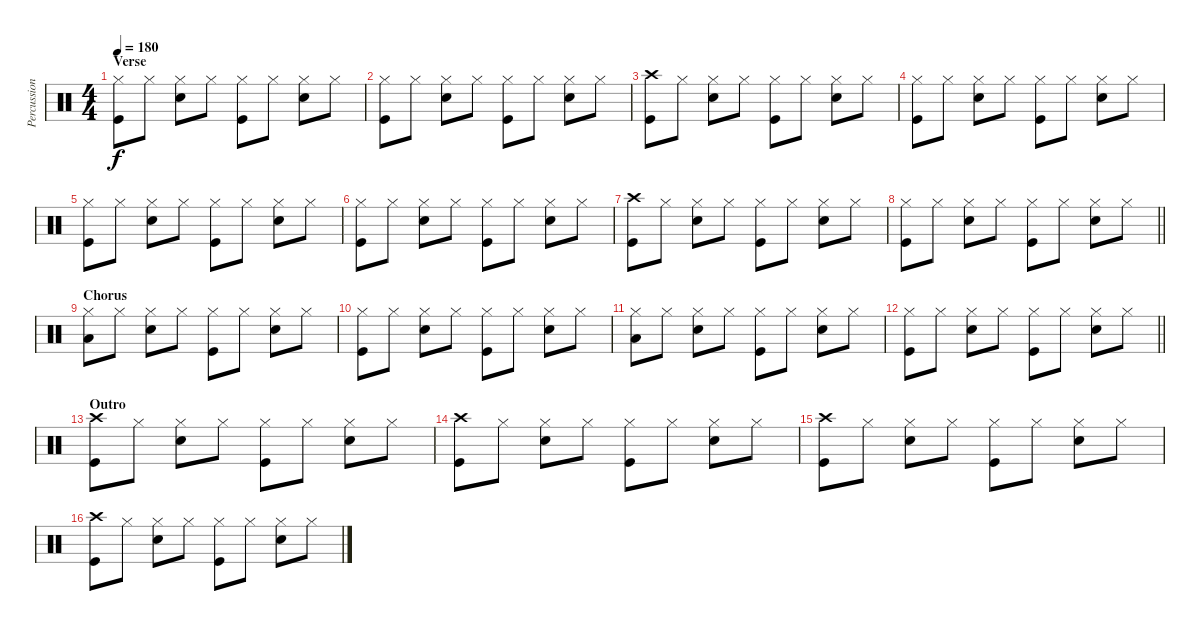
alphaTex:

\track ("Percussion" "Percussion") {mute instrument percussion}
\staff {score}
\articulation defaults
\ts (4 4)
\section ("" "Verse")
\tempo 180
\clef neutral
\ks c
("Hi-Hat (closed)" "Kick (hit)").8{dy f} "Hi-Hat (closed)".8 ("Hi-Hat (closed)" "Snare (hit) 2").8 "Hi-Hat (closed)".8 ("Hi-Hat (closed)" "Kick (hit)").8 "Hi-Hat (closed)".8 ("Hi-Hat (closed)" "Snare (hit) 2").8 "Hi-Hat (closed)".8 |
("Hi-Hat (closed)" "Kick (hit)").8 "Hi-Hat (closed)".8 ("Hi-Hat (closed)" "Snare (hit) 2").8 "Hi-Hat (closed)".8 ("Hi-Hat (closed)" "Kick (hit)").8 "Hi-Hat (closed)".8 ("Hi-Hat (closed)" "Snare (hit) 2").8 "Hi-Hat (closed)".8 |
("Crash high (hit)" "Kick (hit)").8 "Hi-Hat (closed)".8 ("Hi-Hat (closed)" "Snare (hit) 2").8 "Hi-Hat (closed)".8 ("Hi-Hat (closed)" "Kick (hit)").8 "Hi-Hat (closed)".8 ("Hi-Hat (closed)" "Snare (hit) 2").8 "Hi-Hat (closed)".8 |
("Hi-Hat (closed)" "Kick (hit)").8 "Hi-Hat (closed)".8 ("Hi-Hat (closed)" "Snare (hit) 2").8 "Hi-Hat (closed)".8 ("Hi-Hat (closed)" "Kick (hit)").8 "Hi-Hat (closed)".8 ("Hi-Hat (closed)" "Snare (hit) 2").8 "Hi-Hat (closed)".8 |
("Hi-Hat (closed)" "Kick (hit)").8 "Hi-Hat (closed)".8 ("Hi-Hat (closed)" "Snare (hit) 2").8 "Hi-Hat (closed)".8 ("Hi-Hat (closed)" "Kick (hit)").8 "Hi-Hat (closed)".8 ("Hi-Hat (closed)" "Snare (hit) 2").8 "Hi-Hat (closed)".8 |
("Hi-Hat (closed)" "Kick (hit)").8 "Hi-Hat (closed)".8 ("Hi-Hat (closed)" "Snare (hit) 2").8 "Hi-Hat (closed)".8 ("Hi-Hat (closed)" "Kick (hit)").8 "Hi-Hat (closed)".8 ("Hi-Hat (closed)" "Snare (hit) 2").8 "Hi-Hat (closed)".8 |
("Crash high (hit)" "Kick (hit)").8 "Hi-Hat (closed)".8 ("Hi-Hat (closed)" "Snare (hit) 2").8 "Hi-Hat (closed)".8 ("Hi-Hat (closed)" "Kick (hit)").8 "Hi-Hat (closed)".8 ("Hi-Hat (closed)" "Snare (hit) 2").8 "Hi-Hat (closed)".8 |
\barLineRight lightlight
("Hi-Hat (closed)" "Kick (hit)").8 "Hi-Hat (closed)".8 ("Hi-Hat (closed)" "Snare (hit) 2").8 "Hi-Hat (closed)".8 ("Hi-Hat (closed)" "Kick (hit)").8 "Hi-Hat (closed)".8 ("Hi-Hat (closed)" "Snare (hit) 2").8 "Hi-Hat (closed)".8 |
\section ("" "Chorus")
("Hi-Hat (closed)" "Low Floor Tom (hit)").8 "Hi-Hat (closed)".8 ("Hi-Hat (closed)" "Snare (hit) 2").8 "Hi-Hat (closed)".8 ("Hi-Hat (closed)" "Kick (hit)").8 "Hi-Hat (closed)".8 ("Hi-Hat (closed)" "Snare (hit) 2").8 "Hi-Hat (closed)".8 |
("Hi-Hat (closed)" "Kick (hit)").8 "Hi-Hat (closed)".8 ("Hi-Hat (closed)" "Snare (hit) 2").8 "Hi-Hat (closed)".8 ("Hi-Hat (closed)" "Kick (hit)").8 "Hi-Hat (closed)".8 ("Hi-Hat (closed)" "Snare (hit) 2").8 "Hi-Hat (closed)".8 |
("Hi-Hat (closed)" "Low Floor Tom (hit)").8 "Hi-Hat (closed)".8 ("Hi-Hat (closed)" "Snare (hit) 2").8 "Hi-Hat (closed)".8 ("Hi-Hat (closed)" "Kick (hit)").8 "Hi-Hat (closed)".8 ("Hi-Hat (closed)" "Snare (hit) 2").8 "Hi-Hat (closed)".8 |
\barLineRight lightlight
("Hi-Hat (closed)" "Kick (hit)").8 "Hi-Hat (closed)".8 ("Hi-Hat (closed)" "Snare (hit) 2").8 "Hi-Hat (closed)".8 ("Hi-Hat (closed)" "Kick (hit)").8 "Hi-Hat (closed)".8 ("Hi-Hat (closed)" "Snare (hit) 2").8 "Hi-Hat (closed)".8 |
\section ("" "Outro")
("Crash high (hit)" "Kick (hit)").8 "Hi-Hat (closed)".8 ("Hi-Hat (closed)" "Snare (hit) 2").8 "Hi-Hat (closed)".8 ("Hi-Hat (closed)" "Kick (hit)").8 "Hi-Hat (closed)".8 ("Hi-Hat (closed)" "Snare (hit) 2").8 "Hi-Hat (closed)".8 |
("Crash high (hit)" "Kick (hit)").8 "Hi-Hat (closed)".8 ("Hi-Hat (closed)" "Snare (hit) 2").8 "Hi-Hat (closed)".8 ("Hi-Hat (closed)" "Kick (hit)").8 "Hi-Hat (closed)".8 ("Hi-Hat (closed)" "Snare (hit) 2").8 "Hi-Hat (closed)".8 |
("Crash high (hit)" "Kick (hit)").8 "Hi-Hat (closed)".8 ("Hi-Hat (closed)" "Snare (hit) 2").8 "Hi-Hat (closed)".8 ("Hi-Hat (closed)" "Kick (hit)").8 "Hi-Hat (closed)".8 ("Hi-Hat (closed)" "Snare (hit) 2").8 "Hi-Hat (closed)".8 |
("Crash high (hit)" "Kick (hit)").8 "Hi-Hat (closed)".8 ("Hi-Hat (closed)" "Snare (hit) 2").8 "Hi-Hat (closed)".8 ("Hi-Hat (closed)" "Kick (hit)").8 "Hi-Hat (closed)".8 ("Hi-Hat (closed)" "Snare (hit) 2").8 "Hi-Hat (closed)".8
